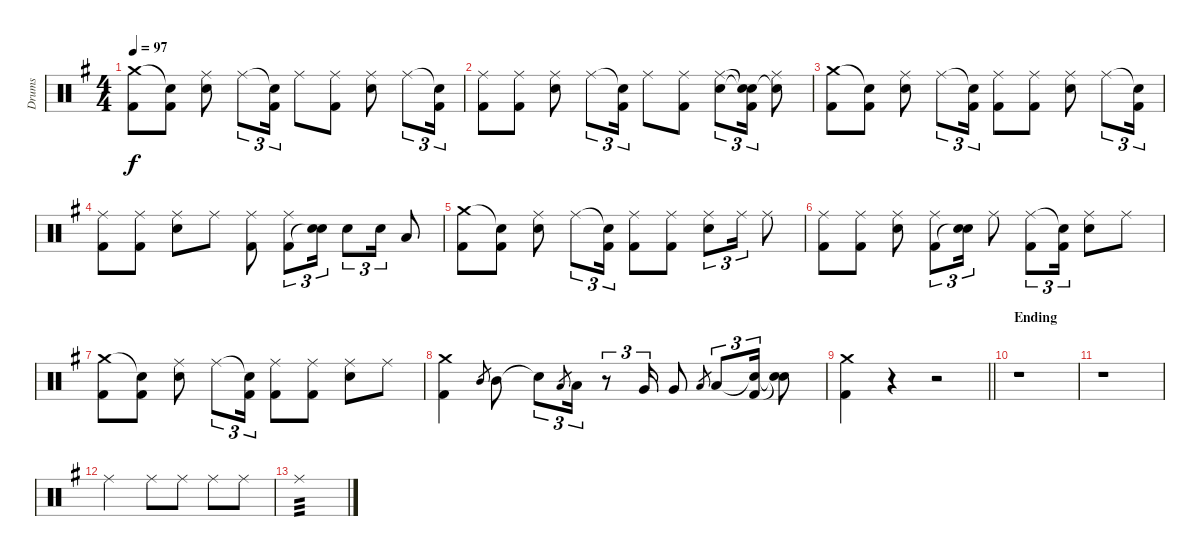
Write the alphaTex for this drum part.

\track ("Drums" "Drums") {instrument percussion}
\staff {score}
\articulation defaults
\ts (4 4)
\tempo 97
\clef neutral
\ks g
("Crash medium (hit)" "Kick (hit) 2").8{dy f} ("Snare (hit)"{t} "Kick (hit) 2").8 ("Ride (middle)" "Electric Snare (hit)").8 "Ride (middle)".8{tu (3 2)} ("Snare (hit)"{t} "Kick (hit) 2").16{tu (3 2)} "Ride (middle)".8 ("Ride (middle)" "Kick (hit) 2").8 ("Ride (middle)" "Electric Snare (hit)").8 "Ride (middle)".8{tu (3 2)} ("Snare (hit)"{t} "Kick (hit) 2").16{tu (3 2)} |
("Ride (middle)" "Kick (hit) 2").8 ("Ride (middle)" "Kick (hit) 2").8 ("Ride (middle)" "Electric Snare (hit)").8 "Ride (middle)".8{tu (3 2)} ("Snare (hit)"{t} "Kick (hit) 2").16{tu (3 2)} "Ride (middle)".8 ("Ride (middle)" "Kick (hit) 2").8 ("Ride (middle)" "Electric Snare (hit)").8{tu (3 2)} ("Snare (hit)"{t} "Snare (hit)"{t} "Kick (hit) 2").16{tu (3 2)} ("Ride (middle)" "Snare (hit)"{t}).8 |
("Crash medium (hit)" "Kick (hit) 2").8 ("Snare (hit)"{t} "Kick (hit) 2").8 ("Ride (middle)" "Electric Snare (hit)").8 "Ride (middle)".8{tu (3 2)} ("Snare (hit)"{t} "Kick (hit) 2").16{tu (3 2)} ("Ride (middle)" "Kick (hit) 2").8 ("Ride (middle)" "Kick (hit) 2").8 ("Ride (middle)" "Electric Snare (hit)").8 "Ride (middle)".8{tu (3 2)} ("Snare (hit)"{t} "Kick (hit) 2").16{tu (3 2)} |
("Ride (middle)" "Kick (hit) 2").8 ("Ride (middle)" "Kick (hit) 2").8 ("Ride (middle)" "Electric Snare (hit)").8 "Ride (middle)".8 ("Ride (middle)" "Kick (hit) 2").8 ("Ride (middle)" "Kick (hit) 2").8{tu (3 2)} ("Electric Snare (hit)" "Snare (hit)"{t}).16{tu (3 2)} "Electric Snare (hit)".8{tu (3 2)} "Electric Snare (hit)".16{tu (3 2)} "Low Tom (hit)".8 |
("Crash medium (hit)" "Kick (hit) 2").8 ("Snare (hit)"{t} "Kick (hit) 2").8 ("Ride (middle)" "Electric Snare (hit)").8 "Ride (middle)".8{tu (3 2)} ("Snare (hit)"{t} "Kick (hit) 2").16{tu (3 2)} ("Ride (middle)" "Kick (hit) 2").8 ("Ride (middle)" "Kick (hit) 2").8 ("Ride (middle)" "Electric Snare (hit)").8{tu (3 2)} "Ride (middle)".16{tu (3 2)} "Ride (middle)".8 |
("Ride (middle)" "Kick (hit) 2").8 ("Ride (middle)" "Kick (hit) 2").8 ("Ride (middle)" "Electric Snare (hit)").8 ("Ride (middle)" "Kick (hit) 2").8{tu (3 2)} ("Electric Snare (hit)" "Snare (hit)"{t}).16{tu (3 2)} "Ride (middle)".8 ("Ride (middle)" "Kick (hit) 2").8{tu (3 2)} ("Snare (hit)"{t} "Kick (hit) 2").16{tu (3 2)} ("Ride (middle)" "Electric Snare (hit)").8 "Ride (middle)".8 |
("Crash medium (hit)" "Kick (hit) 2").8 ("Snare (hit)"{t} "Kick (hit) 2").8 ("Ride (middle)" "Electric Snare (hit)").8 "Ride (middle)".8{tu (3 2)} ("Snare (hit)"{t} "Kick (hit) 2").16{tu (3 2)} ("Ride (middle)" "Kick (hit) 2").8 ("Ride (middle)" "Kick (hit) 2").8 ("Ride (middle)" "Electric Snare (hit)").8 "Ride (middle)".8 |
("Crash medium (hit)" "Kick (hit) 2").4 "Mid Tom (hit)".8{gr} "Mid Tom (hit)".8 "Snare (hit)"{t}.8{tu (3 2)} "Low Tom (hit)".8{gr} "Low Tom (hit)".16{tu (3 2)} r.8{tu (3 2)} "Very Low Tom (hit)".16{tu (3 2)} "Very Low Tom (hit)".8 "Low Floor Tom (hit)".8{gr} "Low Floor Tom (hit)".8{tu (3 2)} ("Snare (hit)"{t} "Kick (hit) 2").16{tu (3 2)} ("Snare (hit)"{t} "Snare (hit)"{t}).8 |
\barLineRight lightlight
("Crash medium (hit)" "Kick (hit) 2").4 r.4 r.2 |
\section ("" "Ending")
r.1 |
r.1 |
"Ride (middle)".2 "Ride (middle)".8 "Ride (middle)".8 "Ride (middle)".8 "Ride (middle)".8 |
"Ride (middle)".1{tp 3}
